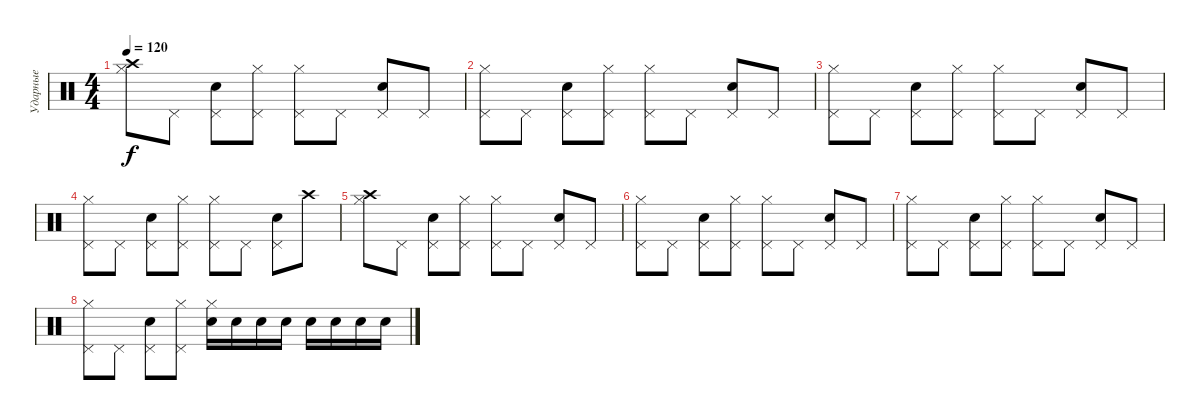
\track ("Ударные" "Ударные") {instrument percussion}
\staff {score}
\articulation defaults
\ts (4 4)
\tempo 120
\clef neutral
\ks c
("Crash high (hit)" "Hi-Hat (closed)").8{dy f} "Pedal Hi-Hat (hit)".8 ("Pedal Hi-Hat (hit)" "Snare (hit) 2").8 ("Pedal Hi-Hat (hit)" "Hi-Hat (closed)").8 ("Pedal Hi-Hat (hit)" "Hi-Hat (closed)").8 "Pedal Hi-Hat (hit)".8 ("Pedal Hi-Hat (hit)" "Snare (hit) 2").8 "Pedal Hi-Hat (hit)".8 |
("Pedal Hi-Hat (hit)" "Hi-Hat (closed)").8 "Pedal Hi-Hat (hit)".8 ("Pedal Hi-Hat (hit)" "Snare (hit) 2").8 ("Pedal Hi-Hat (hit)" "Hi-Hat (closed)").8 ("Pedal Hi-Hat (hit)" "Hi-Hat (closed)").8 "Pedal Hi-Hat (hit)".8 ("Pedal Hi-Hat (hit)" "Snare (hit) 2").8 "Pedal Hi-Hat (hit)".8 |
("Pedal Hi-Hat (hit)" "Hi-Hat (closed)").8 "Pedal Hi-Hat (hit)".8 ("Pedal Hi-Hat (hit)" "Snare (hit) 2").8 ("Pedal Hi-Hat (hit)" "Hi-Hat (closed)").8 ("Pedal Hi-Hat (hit)" "Hi-Hat (closed)").8 "Pedal Hi-Hat (hit)".8 ("Pedal Hi-Hat (hit)" "Snare (hit) 2").8 "Pedal Hi-Hat (hit)".8 |
("Pedal Hi-Hat (hit)" "Hi-Hat (closed)").8 "Pedal Hi-Hat (hit)".8 ("Pedal Hi-Hat (hit)" "Snare (hit) 2").8 ("Pedal Hi-Hat (hit)" "Hi-Hat (closed)").8 ("Pedal Hi-Hat (hit)" "Hi-Hat (closed)").8 "Pedal Hi-Hat (hit)".8 ("Pedal Hi-Hat (hit)" "Snare (hit) 2").8 "Crash high (hit)".8 |
("Crash high (hit)" "Hi-Hat (closed)").8 "Pedal Hi-Hat (hit)".8 ("Pedal Hi-Hat (hit)" "Snare (hit) 2").8 ("Pedal Hi-Hat (hit)" "Hi-Hat (closed)").8 ("Pedal Hi-Hat (hit)" "Hi-Hat (closed)").8 "Pedal Hi-Hat (hit)".8 ("Pedal Hi-Hat (hit)" "Snare (hit) 2").8 "Pedal Hi-Hat (hit)".8 |
("Pedal Hi-Hat (hit)" "Hi-Hat (closed)").8 "Pedal Hi-Hat (hit)".8 ("Pedal Hi-Hat (hit)" "Snare (hit) 2").8 ("Pedal Hi-Hat (hit)" "Hi-Hat (closed)").8 ("Pedal Hi-Hat (hit)" "Hi-Hat (closed)").8 "Pedal Hi-Hat (hit)".8 ("Pedal Hi-Hat (hit)" "Snare (hit) 2").8 "Pedal Hi-Hat (hit)".8 |
("Pedal Hi-Hat (hit)" "Hi-Hat (closed)").8 "Pedal Hi-Hat (hit)".8 ("Pedal Hi-Hat (hit)" "Snare (hit) 2").8 ("Pedal Hi-Hat (hit)" "Hi-Hat (closed)").8 ("Pedal Hi-Hat (hit)" "Hi-Hat (closed)").8 "Pedal Hi-Hat (hit)".8 ("Pedal Hi-Hat (hit)" "Snare (hit) 2").8 "Pedal Hi-Hat (hit)".8 |
("Pedal Hi-Hat (hit)" "Hi-Hat (closed)").8 "Pedal Hi-Hat (hit)".8 ("Pedal Hi-Hat (hit)" "Snare (hit) 2").8 ("Pedal Hi-Hat (hit)" "Hi-Hat (closed)").8 ("Hi-Hat (closed)" "Snare (hit) 2").16 "Snare (hit) 2".16 "Snare (hit) 2".16 "Snare (hit) 2".16 "Snare (hit) 2".16 "Snare (hit) 2".16 "Snare (hit) 2".16 "Snare (hit) 2".16
